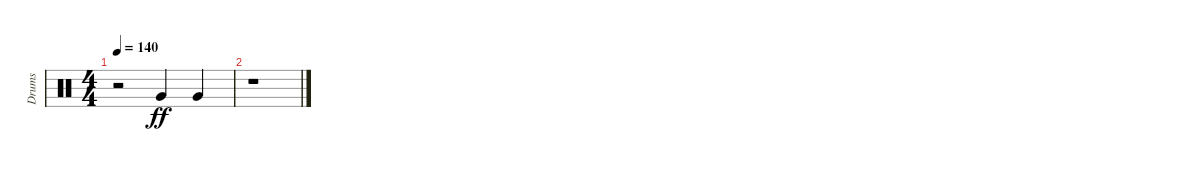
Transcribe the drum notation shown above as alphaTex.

\track ("Drums" "Drums") {instrument percussion}
\staff {score}
\articulation defaults
\ts (4 4)
\tempo 140
\clef neutral
\ks c
r.2{dy f} "Very Low Tom (hit)".4{dy ff} "Very Low Tom (hit)".4 |
r.1
